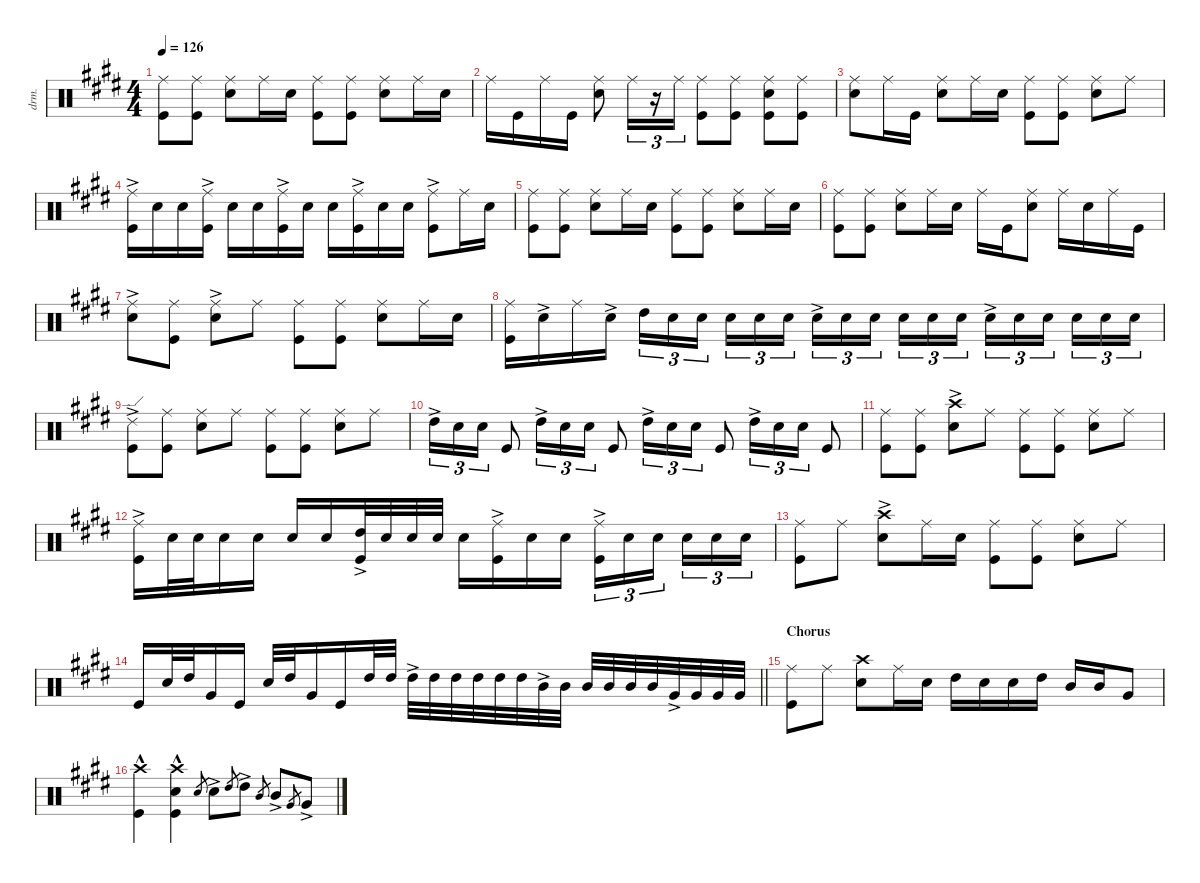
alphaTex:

\defaultSystemsLayout 4
\hideDynamics
\bracketExtendMode nobrackets
\otherSystemsTrackNameOrientation horizontal
\track ("Mitch" "drm.") {instrument percussion}
\staff {score}
\articulation defaults
\ts (4 4)
\tempo 126
\clef neutral
\ks e
("Ride (middle)"{acc forcenatural} "Kick (hit)"{acc forcenatural}).8{dy ff beam Down} ("Ride (middle)"{acc forcenatural} "Kick (hit)"{acc forcenatural}).8{beam Down} ("Ride (middle)"{acc forcenatural} "Snare (hit) 2"{acc forcenatural}).8{beam Down} "Ride (middle)"{acc forcenatural}.16{beam Down} "Snare (hit) 2"{acc forcenatural}.16{beam Down} ("Ride (middle)"{acc forcenatural} "Kick (hit)"{acc forcenatural}).8{beam Down} ("Ride (middle)"{acc forcenatural} "Kick (hit)"{acc forcenatural}).8{beam Down} ("Ride (middle)"{acc forcenatural} "Snare (hit) 2"{acc forcenatural}).8{beam Down} "Ride (middle)"{acc forcenatural}.16{beam Down} "Snare (hit) 2"{acc forcenatural}.16{beam Down} |
"Ride (middle)"{acc forcenatural}.16{beam Down} "Kick (hit)"{acc forcenatural}.16{beam Down} "Ride (middle)"{acc forcenatural}.16{beam Down} "Kick (hit)"{acc forcenatural}.16{beam Down} ("Ride (middle)"{acc forcenatural} "Snare (hit) 2"{acc forcenatural}).8{beam Down} "Ride (middle)"{acc forcenatural}.16{tu (3 2) beam Down} r.16{tu (3 2) beam Down} "Ride (middle)"{acc forcenatural}.16{tu (3 2) beam Down} ("Ride (middle)"{acc forcenatural} "Kick (hit)"{acc forcenatural}).8{beam Down} ("Ride (middle)"{acc forcenatural} "Kick (hit)"{acc forcenatural}).8{beam Down} ("Ride (middle)"{acc forcenatural} "Snare (hit) 2"{acc forcenatural} "Kick (hit)"{acc forcenatural}).8{beam Down} ("Ride (middle)"{acc forcenatural} "Kick (hit)"{acc forcenatural}).8{beam Down} |
("Ride (middle)"{acc forcenatural} "Snare (hit) 2"{acc forcenatural}).8{beam Down} "Ride (middle)"{acc forcenatural}.16{beam Down} "Kick (hit)"{acc forcenatural}.16{beam Down} ("Ride (middle)"{acc forcenatural} "Snare (hit) 2"{acc forcenatural}).8{beam Down} "Ride (middle)"{acc forcenatural}.16{beam Down} "Snare (hit) 2"{acc forcenatural}.16{beam Down} ("Ride (middle)"{acc forcenatural} "Kick (hit)"{acc forcenatural}).8{beam Down} ("Ride (middle)"{acc forcenatural} "Kick (hit)"{acc forcenatural}).8{beam Down} ("Ride (middle)"{acc forcenatural} "Snare (hit) 2"{acc forcenatural}).8{beam Down} "Ride (middle)"{acc forcenatural}.8{beam Down} |
("Ride (middle)"{ac acc forcenatural} "Kick (hit)"{acc forcenatural}).16{beam Down} "Snare (hit) 2"{acc forcenatural}.16{beam Down} "Snare (hit) 2"{acc forcenatural}.16{beam Down} ("Ride (middle)"{ac acc forcenatural} "Kick (hit)"{acc forcenatural}).16{beam Down} "Snare (hit) 2"{acc forcenatural}.16{beam Down} "Snare (hit) 2"{acc forcenatural}.16{beam Down} ("Ride (middle)"{ac acc forcenatural} "Kick (hit)"{acc forcenatural}).16{beam Down} "Snare (hit) 2"{acc forcenatural}.16{beam Down} "Snare (hit) 2"{acc forcenatural}.16{beam Down} ("Ride (middle)"{ac acc forcenatural} "Kick (hit)"{acc forcenatural}).16{beam Down} "Snare (hit) 2"{acc forcenatural}.16{beam Down} "Snare (hit) 2"{acc forcenatural}.16{beam Down} ("Ride (middle)"{ac acc forcenatural} "Kick (hit)"{acc forcenatural}).8{beam Down} "Ride (middle)"{acc forcenatural}.16{beam Down} "Snare (hit) 2"{acc forcenatural}.16{beam Down} |
("Ride (middle)"{acc forcenatural} "Kick (hit)"{acc forcenatural}).8{beam Down} ("Ride (middle)"{acc forcenatural} "Kick (hit)"{acc forcenatural}).8{beam Down} ("Ride (middle)"{acc forcenatural} "Snare (hit) 2"{acc forcenatural}).8{beam Down} "Ride (middle)"{acc forcenatural}.16{beam Down} "Snare (hit) 2"{acc forcenatural}.16{beam Down} ("Ride (middle)"{acc forcenatural} "Kick (hit)"{acc forcenatural}).8{beam Down} ("Ride (middle)"{acc forcenatural} "Kick (hit)"{acc forcenatural}).8{beam Down} ("Ride (middle)"{acc forcenatural} "Snare (hit) 2"{acc forcenatural}).8{beam Down} "Ride (middle)"{acc forcenatural}.16{beam Down} "Snare (hit) 2"{acc forcenatural}.16{beam Down} |
("Ride (middle)"{acc forcenatural} "Kick (hit)"{acc forcenatural}).8{dy f beam Down} ("Ride (middle)"{acc forcenatural} "Kick (hit)"{acc forcenatural}).8{beam Down} ("Ride (middle)"{acc forcenatural} "Snare (hit) 2"{acc forcenatural}).8{beam Down} "Ride (middle)"{acc forcenatural}.16{beam Down} "Snare (hit) 2"{acc forcenatural}.16{beam Down} "Ride (middle)"{acc forcenatural}.16{beam Down} "Kick (hit)"{acc forcenatural}.16{beam Down} ("Ride (middle)"{acc forcenatural} "Snare (hit) 2"{acc forcenatural}).8{beam Down} "Ride (middle)"{acc forcenatural}.16{beam Down} "Snare (hit) 2"{acc forcenatural}.16{beam Down} "Ride (middle)"{acc forcenatural}.16{beam Down} "Kick (hit)"{acc forcenatural}.16{beam Down} |
("Ride (middle)"{ac acc forcenatural} "Snare (hit) 2"{acc forcenatural}).8{beam Down} ("Ride (middle)"{acc forcenatural} "Kick (hit)"{acc forcenatural}).8{beam Down} ("Ride (middle)"{ac acc forcenatural} "Snare (hit) 2"{acc forcenatural}).8{beam Down} "Ride (middle)"{acc forcenatural}.8{beam Down} ("Ride (middle)"{acc forcenatural} "Kick (hit)"{acc forcenatural}).8{beam Down} ("Ride (middle)"{acc forcenatural} "Kick (hit)"{acc forcenatural}).8{beam Down} ("Ride (middle)"{acc forcenatural} "Snare (hit) 2"{acc forcenatural}).8{beam Down} "Ride (middle)"{acc forcenatural}.16{beam Down} "Snare (hit) 2"{acc forcenatural}.16{beam Down} |
("Ride (middle)"{acc forcenatural} "Kick (hit)"{acc forcenatural}).16{beam Down} "Snare (hit) 2"{ac acc forcenatural}.16{beam Down} "Ride (middle)"{acc forcenatural}.16{beam Down} "Snare (hit) 2"{ac acc forcenatural}.16{beam Down} "High Tom (hit)"{acc forcenatural}.16{tu (3 2) beam Down} "Snare (hit) 2"{acc forcenatural}.16{tu (3 2) beam Down} "Snare (hit) 2"{acc forcenatural}.16{tu (3 2) beam Down} "Snare (hit) 2"{acc forcenatural}.16{tu (3 2) beam Down} "Snare (hit) 2"{acc forcenatural}.16{tu (3 2) beam Down} "Snare (hit) 2"{acc forcenatural}.16{tu (3 2) beam Down} "Snare (hit) 2"{ac acc forcenatural}.16{tu (3 2) beam Down} "Snare (hit) 2"{acc forcenatural}.16{tu (3 2) beam Down} "Snare (hit) 2"{acc forcenatural}.16{tu (3 2) beam Down} "Snare (hit) 2"{acc forcenatural}.16{tu (3 2) beam Down} "Snare (hit) 2"{acc forcenatural}.16{tu (3 2) beam Down} "Snare (hit) 2"{acc forcenatural}.16{tu (3 2) beam Down} "Snare (hit) 2"{ac acc forcenatural}.16{tu (3 2) beam Down} "Snare (hit) 2"{acc forcenatural}.16{tu (3 2) beam Down} "Snare (hit) 2"{acc forcenatural}.16{tu (3 2) beam Down} "Snare (hit) 2"{acc forcenatural}.16{tu (3 2) beam Down} "Snare (hit) 2"{acc forcenatural}.16{tu (3 2) beam Down} "Snare (hit) 2"{acc forcenatural}.16{tu (3 2) beam Down} |
("Ride (edge) 2"{ac acc forcenatural} "Kick (hit)"{acc forcenatural}).8{beam Down} ("Ride (middle)"{acc forcenatural} "Kick (hit)"{acc forcenatural}).8{beam Down} ("Ride (middle)"{acc forcenatural} "Snare (hit) 2"{acc forcenatural}).8{beam Down} "Ride (middle)"{acc forcenatural}.8{beam Down} ("Ride (middle)"{acc forcenatural} "Kick (hit)"{acc forcenatural}).8{beam Down} ("Ride (middle)"{acc forcenatural} "Kick (hit)"{acc forcenatural}).8{beam Down} ("Ride (middle)"{acc forcenatural} "Snare (hit) 2"{acc forcenatural}).8{beam Down} "Ride (middle)"{acc forcenatural}.8{beam Down} |
"High Tom (hit)"{ac acc forcenatural}.16{tu (3 2) beam Down} "Snare (hit) 2"{acc forcenatural}.16{tu (3 2) beam Down} "Snare (hit) 2"{acc forcenatural}.16{tu (3 2) beam Down} "Kick (hit)"{acc forcenatural}.8{beam Up} "High Tom (hit)"{ac acc forcenatural}.16{tu (3 2) beam Down} "Snare (hit) 2"{acc forcenatural}.16{tu (3 2) beam Down} "Snare (hit) 2"{acc forcenatural}.16{tu (3 2) beam Down} "Kick (hit)"{acc forcenatural}.8{beam Up} "High Tom (hit)"{ac acc forcenatural}.16{tu (3 2) beam Down} "Snare (hit) 2"{acc forcenatural}.16{tu (3 2) beam Down} "Snare (hit) 2"{acc forcenatural}.16{tu (3 2) beam Down} "Kick (hit)"{acc forcenatural}.8{beam Up} "High Tom (hit)"{ac acc forcenatural}.16{tu (3 2) beam Down} "Snare (hit) 2"{acc forcenatural}.16{tu (3 2) beam Down} "Snare (hit) 2"{acc forcenatural}.16{tu (3 2) beam Down} "Kick (hit)"{acc forcenatural}.8{beam Up} |
("Ride (middle)"{acc forcenatural} "Kick (hit)"{acc forcenatural}).8{beam Down} ("Ride (middle)"{acc forcenatural} "Kick (hit)"{acc forcenatural}).8{beam Down} ("Crash high (hit)"{ac acc forcenatural} "Snare (hit) 2"{acc forcenatural}).8{beam Down} "Ride (middle)"{acc forcenatural}.8{beam Down} ("Ride (middle)"{acc forcenatural} "Kick (hit)"{acc forcenatural}).8{beam Down} ("Ride (middle)"{acc forcenatural} "Kick (hit)"{acc forcenatural}).8{beam Down} ("Ride (middle)"{acc forcenatural} "Snare (hit) 2"{acc forcenatural}).8{beam Down} "Ride (middle)"{acc forcenatural}.8{beam Down} |
("Ride (middle)"{ac acc forcenatural} "Kick (hit)"{acc forcenatural}).16{beam Down} "Snare (hit) 2"{acc forcenatural}.32{beam Down} "Snare (hit) 2"{acc forcenatural}.32{beam Down} "Snare (hit) 2"{acc forcenatural}.16{beam Down} "Snare (hit) 2"{acc forcenatural}.16{beam Down} "Snare (hit) 2"{acc forcenatural}.16{beam Up} "Snare (hit) 2"{acc forcenatural}.16{beam Up} ("High Tom (hit)"{ac acc forcenatural} "Kick (hit)"{acc forcenatural}).32{beam Up} "Snare (hit) 2"{acc forcenatural}.32{beam Up} "Snare (hit) 2"{acc forcenatural}.32{beam Up} "Snare (hit) 2"{acc forcenatural}.32{beam Up} "Snare (hit) 2"{acc forcenatural}.16{beam Down} ("Ride (middle)"{ac acc forcenatural} "Kick (hit)"{acc forcenatural}).16{beam Down} "Snare (hit) 2"{acc forcenatural}.16{beam Down} "Snare (hit) 2"{acc forcenatural}.16{beam Down} ("Ride (middle)"{ac acc forcenatural} "Kick (hit)"{acc forcenatural}).16{tu (3 2) beam Down} "Snare (hit) 2"{acc forcenatural}.16{tu (3 2) beam Down} "Snare (hit) 2"{acc forcenatural}.16{tu (3 2) beam Down} "Snare (hit) 2"{acc forcenatural}.16{tu (3 2) beam Down} "Snare (hit) 2"{acc forcenatural}.16{tu (3 2) beam Down} "Snare (hit) 2"{acc forcenatural}.16{tu (3 2) beam Down} |
("Ride (middle)"{acc forcenatural} "Kick (hit)"{acc forcenatural}).8{beam Down} "Ride (middle)"{acc forcenatural}.8{beam Down} ("Crash high (hit)"{ac acc forcenatural} "Snare (hit) 2"{acc forcenatural}).8{beam Down} "Ride (middle)"{acc forcenatural}.16{beam Down} "Snare (hit) 2"{acc forcenatural}.16{beam Down} ("Ride (middle)"{acc forcenatural} "Kick (hit)"{acc forcenatural}).8{beam Down} ("Ride (middle)"{acc forcenatural} "Kick (hit)"{acc forcenatural}).8{beam Down} ("Ride (middle)"{acc forcenatural} "Snare (hit) 2"{acc forcenatural}).8{beam Down} "Ride (middle)"{acc forcenatural}.8{beam Down} |
\barLineRight lightlight "Kick (hit)"{acc forcenatural}.16{beam Up} "Snare (hit) 2"{acc forcenatural}.32{beam Up} "High Tom (hit)"{acc forcenatural}.32{beam Up} "Very Low Tom (hit)"{acc forcenatural}.16{beam Up} "Kick (hit)"{acc forcenatural}.16{beam Up} "Snare (hit) 2"{acc forcenatural}.32{beam Up} "High Tom (hit)"{acc forcenatural}.32{beam Up} "Very Low Tom (hit)"{acc forcenatural}.16{beam Up} "Kick (hit)"{acc forcenatural}.16{beam Up} "High Tom (hit)"{acc forcenatural}.32{beam Up} "High Tom (hit)"{acc forcenatural}.32{beam Up} "High Tom (hit)"{ac acc forcenatural}.32{beam Down} "High Tom (hit)"{acc forcenatural}.32{beam Down} "High Tom (hit)"{acc forcenatural}.32{beam Down} "High Tom (hit)"{acc forcenatural}.32{beam Down} "High Tom (hit)"{acc forcenatural}.32{beam Down} "High Tom (hit)"{acc forcenatural}.32{beam Down} "Mid Tom (hit)"{ac acc forcenatural}.32{beam Down} "Mid Tom (hit)"{acc forcenatural}.32{beam Down} "Mid Tom (hit)"{acc forcenatural}.32{beam Up} "Mid Tom (hit)"{acc forcenatural}.32{beam Up} "Mid Tom (hit)"{acc forcenatural}.32{beam Up} "Mid Tom (hit)"{acc forcenatural}.32{beam Up} "Very Low Tom (hit)"{ac acc forcenatural}.32{beam Up} "Very Low Tom (hit)"{acc forcenatural}.32{beam Up} "Very Low Tom (hit)"{acc forcenatural}.32{beam Up} "Very Low Tom (hit)"{acc forcenatural}.32{beam Up}
|
\section ("" "Chorus")
("Ride (middle)"{acc forcenatural} "Kick (hit)"{acc forcenatural}).8{beam Down} "Ride (middle)"{acc forcenatural}.8{beam Down} ("Crash high (hit)"{acc forcenatural} "Snare (hit) 2"{acc forcenatural}).8{beam Down} "Ride (middle)"{acc forcenatural}.16{beam Down} "Snare (hit) 2"{acc forcenatural}.16{beam Down} "High Tom (hit)"{acc forcenatural}.16{beam Down} "Snare (hit) 2"{acc forcenatural}.16{beam Down} "Snare (hit) 2"{acc forcenatural}.16{beam Down} "High Tom (hit)"{acc forcenatural}.16{beam Down} "Mid Tom (hit)"{acc forcenatural}.16{beam Up} "Mid Tom (hit)"{acc forcenatural}.16{beam Up} "Very Low Tom (hit)"{acc forcenatural}.8{beam Up} |
("Crash high (hit)"{hac acc forcenatural} "Kick (hit)"{acc forcenatural}).4{beam Down} ("Crash high (hit)"{hac acc forcenatural} "Snare (hit) 2"{acc forcenatural} "Kick (hit)"{acc forcenatural}).4{beam Down} "Snare (hit) 2"{acc forcenatural}.8{gr dy mf beam Up} "Snare (hit) 2"{ac acc forcenatural}.8{dy f beam Down} "High Tom (hit)"{acc forcenatural}.8{gr beam Up} "High Tom (hit)"{ac acc forcenatural}.8{beam Down} "Mid Tom (hit)"{acc forcenatural}.8{gr beam Up} "Mid Tom (hit)"{ac acc forcenatural}.8{beam Up} "Very Low Tom (hit)"{acc forcenatural}.8{gr beam Up} "Very Low Tom (hit)"{ac acc forcenatural}.8{beam Up}
